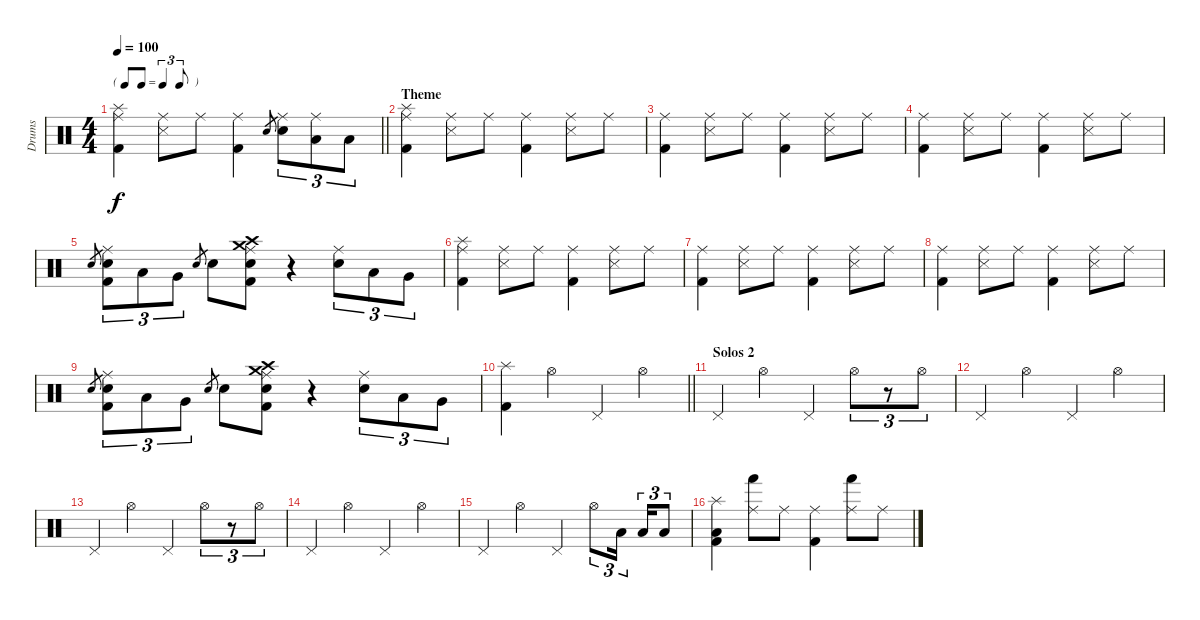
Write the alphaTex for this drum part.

\track ("Drums" "Drums") {instrument percussion}
\staff {score}
\articulation defaults
\ts (4 4)
\tf triplet8th
\tempo 100
\clef neutral
\barLineRight lightlight
\ks c
("Ride (middle)" "Splash (hit)" "Kick (hit) 2").4{dy f} ("Ride (middle)" "Snare (side stick) 3").8 "Ride (middle)".8 ("Ride (middle)" "Kick (hit) 2").4 "Electric Snare (hit)".8{gr} ("Ride (middle)" "Electric Snare (hit)").8{tu (3 2)} ("Ride (middle)" "Low Tom (hit)").8{tu (3 2)} "Low Floor Tom (hit)".8{tu (3 2)} |
\section ("" "Theme")
("Ride (middle)" "Splash (hit)" "Kick (hit) 2").4 ("Ride (middle)" "Snare (side stick) 3").8 "Ride (middle)".8 ("Ride (middle)" "Kick (hit) 2").4 ("Ride (middle)" "Snare (side stick) 3").8 "Ride (middle)".8 |
("Ride (middle)" "Kick (hit) 2").4 ("Ride (middle)" "Snare (side stick) 3").8 "Ride (middle)".8 ("Ride (middle)" "Kick (hit) 2").4 ("Ride (middle)" "Snare (side stick) 3").8 "Ride (middle)".8 |
("Ride (middle)" "Kick (hit) 2").4 ("Ride (middle)" "Snare (side stick) 3").8 "Ride (middle)".8 ("Ride (middle)" "Kick (hit) 2").4 ("Ride (middle)" "Snare (side stick) 3").8 "Ride (middle)".8 |
"Electric Snare (hit)".8{gr} ("Ride (middle)" "Electric Snare (hit)" "Kick (hit) 2").8{tu (3 2)} "Low Tom (hit)".8{tu (3 2)} "Very Low Tom (hit)".8{tu (3 2)} "Electric Snare (hit)".8{gr} "Electric Snare (hit)".8 ("Ride (middle)" "Crash high (hit)" "Crash medium (hit)" "Electric Snare (hit)" "Kick (hit) 2").8 r.4 ("Ride (middle)" "Electric Snare (hit)").8{tu (3 2)} "Low Tom (hit)".8{tu (3 2)} "Very Low Tom (hit)".8{tu (3 2)} |
("Ride (middle)" "Splash (hit)" "Kick (hit) 2").4 ("Ride (middle)" "Snare (side stick) 3").8 "Ride (middle)".8 ("Ride (middle)" "Kick (hit) 2").4 ("Ride (middle)" "Snare (side stick) 3").8 "Ride (middle)".8 |
("Ride (middle)" "Kick (hit) 2").4 ("Ride (middle)" "Snare (side stick) 3").8 "Ride (middle)".8 ("Ride (middle)" "Kick (hit) 2").4 ("Ride (middle)" "Snare (side stick) 3").8 "Ride (middle)".8 |
("Ride (middle)" "Kick (hit) 2").4 ("Ride (middle)" "Snare (side stick) 3").8 "Ride (middle)".8 ("Ride (middle)" "Kick (hit) 2").4 ("Ride (middle)" "Snare (side stick) 3").8 "Ride (middle)".8 |
"Electric Snare (hit)".8{gr} ("Ride (middle)" "Electric Snare (hit)" "Kick (hit) 2").8{tu (3 2)} "Low Tom (hit)".8{tu (3 2)} "Very Low Tom (hit)".8{tu (3 2)} "Electric Snare (hit)".8{gr} "Electric Snare (hit)".8 ("Ride (middle)" "Crash high (hit)" "Crash medium (hit)" "Electric Snare (hit)" "Kick (hit) 2").8 r.4 ("Ride (middle)" "Electric Snare (hit)").8{tu (3 2)} "Low Tom (hit)".8{tu (3 2)} "Very Low Tom (hit)".8{tu (3 2)} |
\barLineRight lightlight
("Splash (hit)" "Kick (hit) 2").4 "Hi-Hat (open)".4 "Pedal Hi-Hat (hit)".4 "Hi-Hat (open)".4 |
\section ("" "Solos 2")
"Pedal Hi-Hat (hit)".4 "Hi-Hat (open)".4 "Pedal Hi-Hat (hit)".4 "Hi-Hat (open)".8{tu (3 2)} r.8{tu (3 2)} "Hi-Hat (open)".8{tu (3 2)} |
"Pedal Hi-Hat (hit)".4 "Hi-Hat (open)".4 "Pedal Hi-Hat (hit)".4 "Hi-Hat (open)".4 |
"Pedal Hi-Hat (hit)".4 "Hi-Hat (open)".4 "Pedal Hi-Hat (hit)".4 "Hi-Hat (open)".8{tu (3 2)} r.8{tu (3 2)} "Hi-Hat (open)".8{tu (3 2)} |
"Pedal Hi-Hat (hit)".4 "Hi-Hat (open)".4 "Pedal Hi-Hat (hit)".4 "Hi-Hat (open)".4 |
"Pedal Hi-Hat (hit)".4 "Hi-Hat (open)".4 "Pedal Hi-Hat (hit)".4 "Hi-Hat (open)".8{tu (3 2)} "Low Tom (hit)".16{tu (3 2) beam splitsecondary} "Low Tom (hit)".16{tu (3 2)} "Low Tom (hit)".8{tu (3 2)} |
("Splash (hit)" "Low Tom (hit)" "Kick (hit) 2").4 ("Ride (middle)" "Hand (hit)").8 "Ride (middle)".8 ("Ride (middle)" "Kick (hit) 2").4 ("Ride (middle)" "Hand (hit)").8 "Ride (middle)".8
